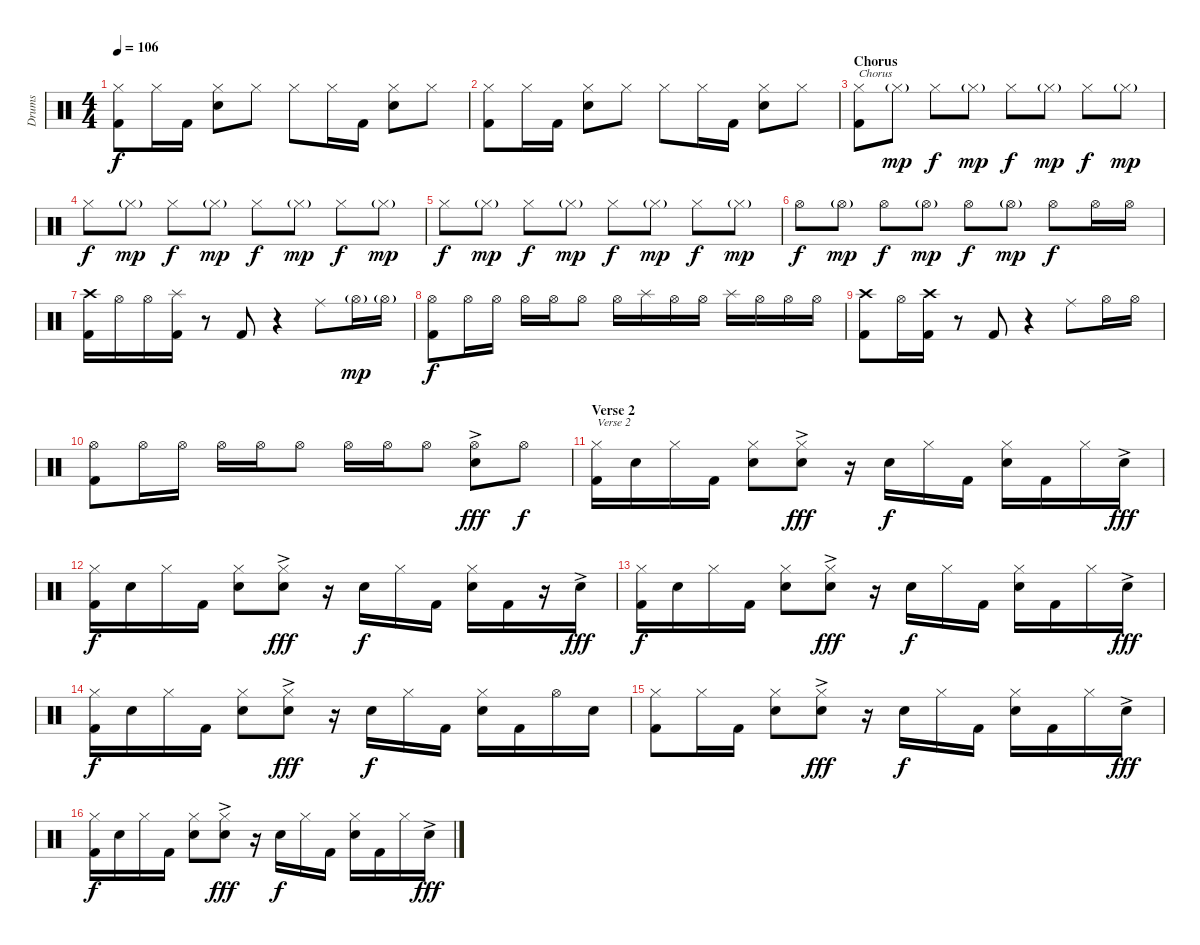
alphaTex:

\track ("Drums" "Drums") {instrument percussion}
\staff {score}
\articulation defaults
\ts (4 4)
\tempo 106
\clef neutral
\ks c
("Hi-Hat (closed)" "Kick (hit) 2").8{dy f} "Hi-Hat (closed)".16 "Kick (hit) 2".16 ("Hi-Hat (closed)" "Electric Snare (hit)").8 "Hi-Hat (closed)".8 "Hi-Hat (closed)".8 "Hi-Hat (closed)".16 "Kick (hit) 2".16 ("Hi-Hat (closed)" "Electric Snare (hit)").8 "Hi-Hat (closed)".8 |
("Hi-Hat (closed)" "Kick (hit) 2").8 "Hi-Hat (closed)".16 "Kick (hit) 2".16 ("Hi-Hat (closed)" "Electric Snare (hit)").8 "Hi-Hat (closed)".8 "Hi-Hat (closed)".8 "Hi-Hat (closed)".16 "Kick (hit) 2".16 ("Hi-Hat (closed)" "Electric Snare (hit)").8 "Hi-Hat (closed)".8 |
\section ("" "Chorus")
("Hi-Hat (closed)" "Kick (hit) 2").8{txt "Chorus"} "Hi-Hat (closed)"{g}.8{dy mp} "Hi-Hat (closed)".8{dy f} "Hi-Hat (closed)"{g}.8{dy mp} "Hi-Hat (closed)".8{dy f} "Hi-Hat (closed)"{g}.8{dy mp} "Hi-Hat (closed)".8{dy f} "Hi-Hat (closed)"{g}.8{dy mp} |
"Hi-Hat (closed)".8{dy f} "Hi-Hat (closed)"{g}.8{dy mp} "Hi-Hat (closed)".8{dy f} "Hi-Hat (closed)"{g}.8{dy mp} "Hi-Hat (closed)".8{dy f} "Hi-Hat (closed)"{g}.8{dy mp} "Hi-Hat (closed)".8{dy f} "Hi-Hat (closed)"{g}.8{dy mp} |
"Hi-Hat (closed)".8{dy f} "Hi-Hat (closed)"{g}.8{dy mp} "Hi-Hat (closed)".8{dy f} "Hi-Hat (closed)"{g}.8{dy mp} "Hi-Hat (closed)".8{dy f} "Hi-Hat (closed)"{g}.8{dy mp} "Hi-Hat (closed)".8{dy f} "Hi-Hat (closed)"{g}.8{dy mp} |
"Hi-Hat (open)".8{dy f} "Hi-Hat (open)"{g}.8{dy mp} "Hi-Hat (open)".8{dy f} "Hi-Hat (open)"{g}.8{dy mp} "Hi-Hat (open)".8{dy f} "Hi-Hat (open)"{g}.8{dy mp} "Hi-Hat (open)".8{dy f} "Hi-Hat (open)".16 "Hi-Hat (open)".16 |
("Crash high (hit)" "Kick (hit) 2").16 "Hi-Hat (open)".16 "Hi-Hat (open)".16 ("Splash (hit)" "Kick (hit) 2").16 r.8 "Kick (hit) 2".8 r.4 "Ride (middle)".8 "Hi-Hat (open)"{g}.16{dy mp} "Hi-Hat (open)"{g}.16 |
("Hi-Hat (open)" "Kick (hit) 2").8{dy f} "Hi-Hat (open)".16 "Hi-Hat (open)".16 "Hi-Hat (open)".16 "Hi-Hat (open)".16 "Hi-Hat (open)".8 "Hi-Hat (open)".16 "Splash (hit)".16 "Hi-Hat (open)".16 "Hi-Hat (open)".16 "Splash (hit)".16 "Hi-Hat (open)".16 "Hi-Hat (open)".16 "Hi-Hat (open)".16 |
("Crash high (hit)" "Kick (hit) 2").8 "Hi-Hat (open)".16 ("Crash high (hit)" "Kick (hit) 2").16 r.8 "Kick (hit) 2".8 r.4 "Ride (middle)".8 "Hi-Hat (open)".16 "Hi-Hat (open)".16 |
("Hi-Hat (open)" "Kick (hit) 2").8 "Hi-Hat (open)".16 "Hi-Hat (open)".16 "Hi-Hat (open)".16 "Hi-Hat (open)".16 "Hi-Hat (open)".8 "Hi-Hat (open)".16 "Hi-Hat (open)".16 "Hi-Hat (open)".8 ("Hi-Hat (open)" "Electric Snare (hit)"{ac}).8{dy fff} "Hi-Hat (open)".8{dy f} |
\section ("" "Verse 2")
("Hi-Hat (closed)" "Kick (hit) 2").16{txt "Verse 2"} "Electric Snare (hit)".16 "Hi-Hat (closed)".16 "Kick (hit) 2".16 ("Hi-Hat (closed)" "Electric Snare (hit)").8 ("Hi-Hat (closed)" "Electric Snare (hit)"{ac}).8{dy fff} r.16 "Electric Snare (hit)".16{dy f} "Hi-Hat (closed)".16 "Kick (hit) 2".16 ("Hi-Hat (closed)" "Electric Snare (hit)").16 "Kick (hit) 2".16 "Hi-Hat (closed)".16 "Electric Snare (hit)"{ac}.16{dy fff} |
("Hi-Hat (closed)" "Kick (hit) 2").16{dy f} "Electric Snare (hit)".16 "Hi-Hat (closed)".16 "Kick (hit) 2".16 ("Hi-Hat (closed)" "Electric Snare (hit)").8 ("Hi-Hat (closed)" "Electric Snare (hit)"{ac}).8{dy fff} r.16 "Electric Snare (hit)".16{dy f} "Hi-Hat (closed)".16 "Kick (hit) 2".16 ("Hi-Hat (closed)" "Electric Snare (hit)").16 "Kick (hit) 2".16 r.16 "Electric Snare (hit)"{ac}.16{dy fff} |
("Hi-Hat (closed)" "Kick (hit) 2").16{dy f} "Electric Snare (hit)".16 "Hi-Hat (closed)".16 "Kick (hit) 2".16 ("Hi-Hat (closed)" "Electric Snare (hit)").8 ("Hi-Hat (closed)" "Electric Snare (hit)"{ac}).8{dy fff} r.16 "Electric Snare (hit)".16{dy f} "Hi-Hat (closed)".16 "Kick (hit) 2".16 ("Hi-Hat (closed)" "Electric Snare (hit)").16 "Kick (hit) 2".16 "Hi-Hat (closed)".16 "Electric Snare (hit)"{ac}.16{dy fff} |
("Hi-Hat (closed)" "Kick (hit) 2").16{dy f} "Electric Snare (hit)".16 "Hi-Hat (closed)".16 "Kick (hit) 2".16 ("Hi-Hat (closed)" "Electric Snare (hit)").8 ("Hi-Hat (closed)" "Electric Snare (hit)"{ac}).8{dy fff} r.16 "Electric Snare (hit)".16{dy f} "Hi-Hat (closed)".16 "Kick (hit) 2".16 ("Hi-Hat (closed)" "Electric Snare (hit)").16 "Kick (hit) 2".16 "Hi-Hat (open)".16 "Electric Snare (hit)".16 |
("Hi-Hat (closed)" "Kick (hit) 2").8 "Hi-Hat (closed)".16 "Kick (hit) 2".16 ("Hi-Hat (closed)" "Electric Snare (hit)").8 ("Hi-Hat (closed)" "Electric Snare (hit)"{ac}).8{dy fff} r.16 "Electric Snare (hit)".16{dy f} "Hi-Hat (closed)".16 "Kick (hit) 2".16 ("Hi-Hat (closed)" "Electric Snare (hit)").16 "Kick (hit) 2".16 "Hi-Hat (closed)".16 "Electric Snare (hit)"{ac}.16{dy fff} |
("Hi-Hat (closed)" "Kick (hit) 2").16{dy f} "Electric Snare (hit)".16 "Hi-Hat (closed)".16 "Kick (hit) 2".16 ("Hi-Hat (closed)" "Electric Snare (hit)").8 ("Hi-Hat (closed)" "Electric Snare (hit)"{ac}).8{dy fff} r.16 "Electric Snare (hit)".16{dy f} "Hi-Hat (closed)".16 "Kick (hit) 2".16 ("Hi-Hat (closed)" "Electric Snare (hit)").16 "Kick (hit) 2".16 "Hi-Hat (closed)".16 "Electric Snare (hit)"{ac}.16{dy fff}
